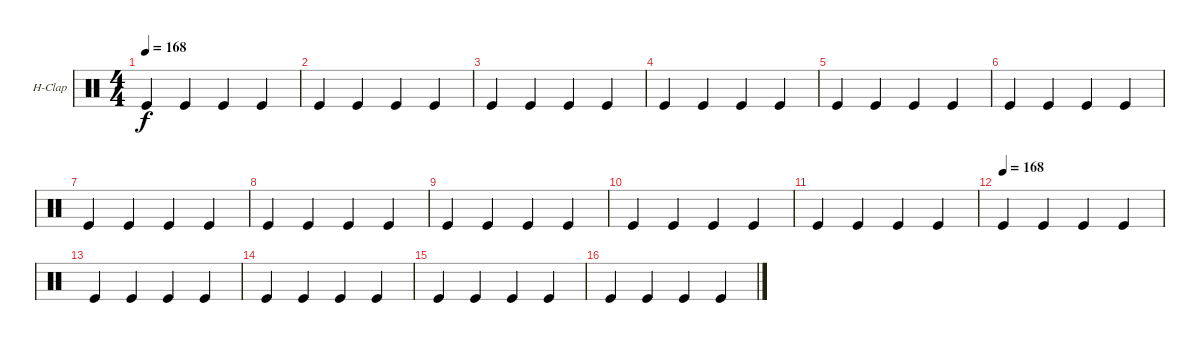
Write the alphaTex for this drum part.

\bracketExtendMode groupsimilarinstruments
\firstSystemTrackNameOrientation horizontal
\otherSystemsTrackNameOrientation horizontal
\track ("Hand Clap" "H-Clap") {instrument percussion}
\staff {score}
\articulation defaults
\ts (4 4)
\tempo 168
\clef neutral
\ks c "Kick (hit)".4{dy f} "Kick (hit)".4 "Kick (hit)".4 "Kick (hit)".4
|
"Kick (hit)".4 "Kick (hit)".4 "Kick (hit)".4 "Kick (hit)".4 |
"Kick (hit)".4 "Kick (hit)".4 "Kick (hit)".4 "Kick (hit)".4 |
"Kick (hit)".4 "Kick (hit)".4 "Kick (hit)".4 "Kick (hit)".4 |
"Kick (hit)".4 "Kick (hit)".4 "Kick (hit)".4 "Kick (hit)".4 |
"Kick (hit)".4 "Kick (hit)".4 "Kick (hit)".4 "Kick (hit)".4 |
"Kick (hit)".4 "Kick (hit)".4 "Kick (hit)".4 "Kick (hit)".4 |
"Kick (hit)".4 "Kick (hit)".4 "Kick (hit)".4 "Kick (hit)".4 |
"Kick (hit)".4 "Kick (hit)".4 "Kick (hit)".4 "Kick (hit)".4 |
"Kick (hit)".4 "Kick (hit)".4 "Kick (hit)".4 "Kick (hit)".4 |
"Kick (hit)".4 "Kick (hit)".4 "Kick (hit)".4 "Kick (hit)".4 |
\tempo (168 0.00625)
"Kick (hit)".4 "Kick (hit)".4 "Kick (hit)".4 "Kick (hit)".4 |
"Kick (hit)".4 "Kick (hit)".4 "Kick (hit)".4 "Kick (hit)".4 |
"Kick (hit)".4 "Kick (hit)".4 "Kick (hit)".4 "Kick (hit)".4 |
"Kick (hit)".4 "Kick (hit)".4 "Kick (hit)".4 "Kick (hit)".4 |
"Kick (hit)".4 "Kick (hit)".4 "Kick (hit)".4 "Kick (hit)".4
